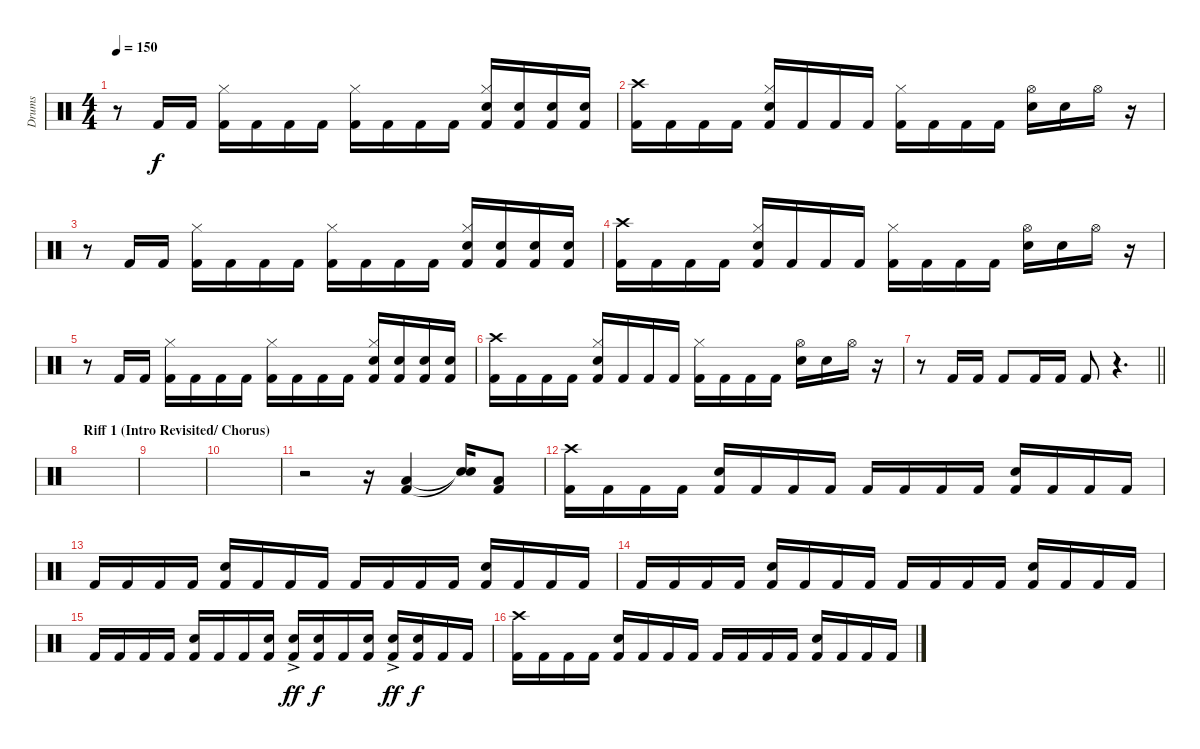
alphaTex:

\track ("Drums" "Drums") {instrument percussion}
\staff {score}
\articulation defaults
\ts (4 4)
\tempo 150
\clef neutral
\ks c
r.8{dy f} "Kick (hit) 2".16 "Kick (hit) 2".16 ("Hi-Hat (closed)" "Kick (hit) 2").16 "Kick (hit) 2".16 "Kick (hit) 2".16 "Kick (hit) 2".16 ("Hi-Hat (closed)" "Kick (hit) 2").16 "Kick (hit) 2".16 "Kick (hit) 2".16 "Kick (hit) 2".16 ("Hi-Hat (closed)" "Snare (hit) 2" "Kick (hit) 2").16 ("Snare (hit) 2" "Kick (hit) 2").16 ("Snare (hit) 2" "Kick (hit) 2").16 ("Snare (hit) 2" "Kick (hit) 2").16 |
("Crash high (hit)" "Kick (hit) 2").16 "Kick (hit) 2".16 "Kick (hit) 2".16 "Kick (hit) 2".16 ("Hi-Hat (closed)" "Snare (hit) 2" "Kick (hit) 2").16 "Kick (hit) 2".16 "Kick (hit) 2".16 "Kick (hit) 2".16 ("Hi-Hat (closed)" "Kick (hit) 2").16 "Kick (hit) 2".16 "Kick (hit) 2".16 "Kick (hit) 2".16 ("Hi-Hat (open)" "Snare (hit) 2").16 "Snare (hit) 2".16 "Hi-Hat (open)".16 r.16 |
r.8 "Kick (hit) 2".16 "Kick (hit) 2".16 ("Hi-Hat (closed)" "Kick (hit) 2").16 "Kick (hit) 2".16 "Kick (hit) 2".16 "Kick (hit) 2".16 ("Hi-Hat (closed)" "Kick (hit) 2").16 "Kick (hit) 2".16 "Kick (hit) 2".16 "Kick (hit) 2".16 ("Hi-Hat (closed)" "Snare (hit) 2" "Kick (hit) 2").16 ("Snare (hit) 2" "Kick (hit) 2").16 ("Snare (hit) 2" "Kick (hit) 2").16 ("Snare (hit) 2" "Kick (hit) 2").16 |
("Crash high (hit)" "Kick (hit) 2").16 "Kick (hit) 2".16 "Kick (hit) 2".16 "Kick (hit) 2".16 ("Hi-Hat (closed)" "Snare (hit) 2" "Kick (hit) 2").16 "Kick (hit) 2".16 "Kick (hit) 2".16 "Kick (hit) 2".16 ("Hi-Hat (closed)" "Kick (hit) 2").16 "Kick (hit) 2".16 "Kick (hit) 2".16 "Kick (hit) 2".16 ("Hi-Hat (open)" "Snare (hit) 2").16 "Snare (hit) 2".16 "Hi-Hat (open)".16 r.16 |
r.8 "Kick (hit) 2".16 "Kick (hit) 2".16 ("Hi-Hat (closed)" "Kick (hit) 2").16 "Kick (hit) 2".16 "Kick (hit) 2".16 "Kick (hit) 2".16 ("Hi-Hat (closed)" "Kick (hit) 2").16 "Kick (hit) 2".16 "Kick (hit) 2".16 "Kick (hit) 2".16 ("Hi-Hat (closed)" "Snare (hit) 2" "Kick (hit) 2").16 ("Snare (hit) 2" "Kick (hit) 2").16 ("Snare (hit) 2" "Kick (hit) 2").16 ("Snare (hit) 2" "Kick (hit) 2").16 |
("Crash high (hit)" "Kick (hit) 2").16 "Kick (hit) 2".16 "Kick (hit) 2".16 "Kick (hit) 2".16 ("Hi-Hat (closed)" "Snare (hit) 2" "Kick (hit) 2").16 "Kick (hit) 2".16 "Kick (hit) 2".16 "Kick (hit) 2".16 ("Hi-Hat (closed)" "Kick (hit) 2").16 "Kick (hit) 2".16 "Kick (hit) 2".16 "Kick (hit) 2".16 ("Hi-Hat (open)" "Snare (hit) 2").16 "Snare (hit) 2".16 "Hi-Hat (open)".16 r.16 |
\barLineRight lightlight
r.8 "Kick (hit) 2".16 "Kick (hit) 2".16 "Kick (hit) 2".8 "Kick (hit) 2".16 "Kick (hit) 2".16 "Kick (hit) 2".8 r.4{d} |
\section ("" "Riff 1 (Intro Revisited/ Chorus)")
|
|
|
r.2 r.16 ("Low Tom (hit)" "Kick (hit) 2").4 ("Snare (hit)"{t} "Snare (hit)"{t}).16 ("Low Tom (hit)" "Kick (hit) 2").8 |
("Crash high (hit)" "Kick (hit) 2").16 "Kick (hit) 2".16 "Kick (hit) 2".16 "Kick (hit) 2".16 ("Snare (hit) 2" "Kick (hit) 2").16 "Kick (hit) 2".16 "Kick (hit) 2".16 "Kick (hit) 2".16 "Kick (hit) 2".16 "Kick (hit) 2".16 "Kick (hit) 2".16 "Kick (hit) 2".16 ("Snare (hit) 2" "Kick (hit) 2").16 "Kick (hit) 2".16 "Kick (hit) 2".16 "Kick (hit) 2".16 |
"Kick (hit) 2".16 "Kick (hit) 2".16 "Kick (hit) 2".16 "Kick (hit) 2".16 ("Snare (hit) 2" "Kick (hit) 2").16 "Kick (hit) 2".16 "Kick (hit) 2".16 "Kick (hit) 2".16 "Kick (hit) 2".16 "Kick (hit) 2".16 "Kick (hit) 2".16 "Kick (hit) 2".16 ("Snare (hit) 2" "Kick (hit) 2").16 "Kick (hit) 2".16 "Kick (hit) 2".16 "Kick (hit) 2".16 |
"Kick (hit) 2".16 "Kick (hit) 2".16 "Kick (hit) 2".16 "Kick (hit) 2".16 ("Snare (hit) 2" "Kick (hit) 2").16 "Kick (hit) 2".16 "Kick (hit) 2".16 "Kick (hit) 2".16 "Kick (hit) 2".16 "Kick (hit) 2".16 "Kick (hit) 2".16 "Kick (hit) 2".16 ("Snare (hit) 2" "Kick (hit) 2").16 "Kick (hit) 2".16 "Kick (hit) 2".16 "Kick (hit) 2".16 |
"Kick (hit) 2".16 "Kick (hit) 2".16 "Kick (hit) 2".16 "Kick (hit) 2".16 ("Snare (hit) 2" "Kick (hit) 2").16 "Kick (hit) 2".16 "Kick (hit) 2".16 ("Snare (hit) 2" "Kick (hit) 2").16 ("Snare (hit) 2"{ac} "Kick (hit) 2").16{dy ff} ("Snare (hit) 2" "Kick (hit) 2").16{dy f} "Kick (hit) 2".16 ("Snare (hit) 2" "Kick (hit) 2").16 ("Snare (hit) 2"{ac} "Kick (hit) 2").16{dy ff} ("Snare (hit) 2" "Kick (hit) 2").16{dy f} "Kick (hit) 2".16 "Kick (hit) 2".16 |
("Crash high (hit)" "Kick (hit) 2").16 "Kick (hit) 2".16 "Kick (hit) 2".16 "Kick (hit) 2".16 ("Snare (hit) 2" "Kick (hit) 2").16 "Kick (hit) 2".16 "Kick (hit) 2".16 "Kick (hit) 2".16 "Kick (hit) 2".16 "Kick (hit) 2".16 "Kick (hit) 2".16 "Kick (hit) 2".16 ("Snare (hit) 2" "Kick (hit) 2").16 "Kick (hit) 2".16 "Kick (hit) 2".16 "Kick (hit) 2".16
